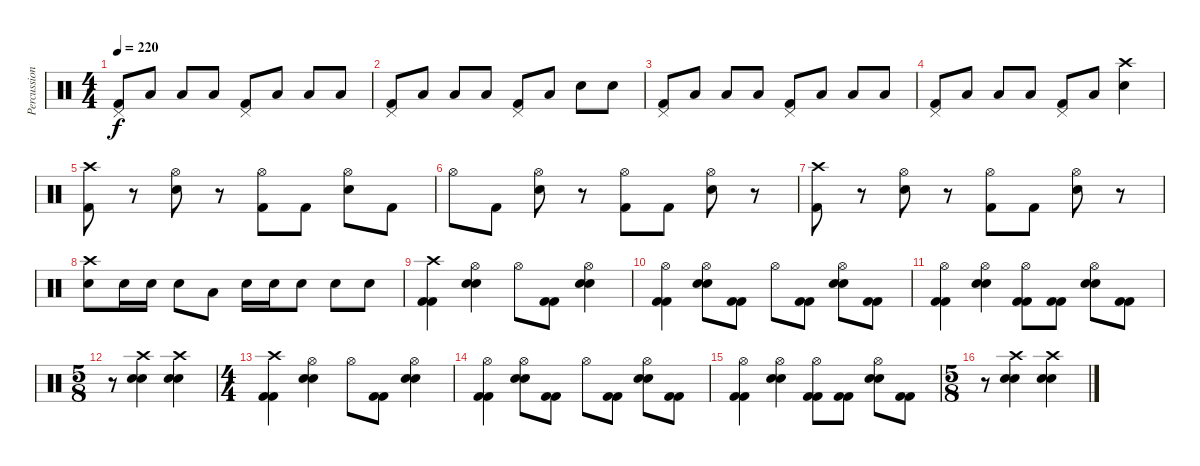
\track ("Percussion" "Percussion") {instrument percussion}
\staff {score}
\articulation defaults
\ts (4 4)
\tempo 220
\clef neutral
\ks c
("Pedal Hi-Hat (hit)" "Kick (hit) 2").8{dy f} "Low Tom (hit)".8 "Low Tom (hit)".8 "Low Tom (hit)".8 ("Pedal Hi-Hat (hit)" "Kick (hit) 2").8 "Low Tom (hit)".8 "Low Tom (hit)".8 "Low Tom (hit)".8 |
("Pedal Hi-Hat (hit)" "Kick (hit) 2").8 "Low Tom (hit)".8 "Low Tom (hit)".8 "Low Tom (hit)".8 ("Pedal Hi-Hat (hit)" "Kick (hit) 2").8 "Low Tom (hit)".8 "Snare (hit) 2".8 "Snare (hit) 2".8 |
("Pedal Hi-Hat (hit)" "Kick (hit) 2").8 "Low Tom (hit)".8 "Low Tom (hit)".8 "Low Tom (hit)".8 ("Pedal Hi-Hat (hit)" "Kick (hit) 2").8 "Low Tom (hit)".8 "Low Tom (hit)".8 "Low Tom (hit)".8 |
("Pedal Hi-Hat (hit)" "Kick (hit) 2").8 "Low Tom (hit)".8 "Low Tom (hit)".8 "Low Tom (hit)".8 ("Pedal Hi-Hat (hit)" "Kick (hit) 2").8 "Low Tom (hit)".8 ("Crash high (hit)" "Snare (hit) 2").4 |
("Crash high (hit)" "Kick (hit) 2").8 r.8 ("Hi-Hat (open)" "Snare (hit) 2").8 r.8 ("Hi-Hat (open)" "Kick (hit) 2").8 "Kick (hit) 2".8 ("Hi-Hat (open)" "Snare (hit) 2").8 "Kick (hit) 2".8 |
"Hi-Hat (open)".8 "Kick (hit) 2".8 ("Hi-Hat (open)" "Snare (hit) 2").8 r.8 ("Hi-Hat (open)" "Kick (hit) 2").8 "Kick (hit) 2".8 ("Hi-Hat (open)" "Snare (hit) 2").8 r.8 |
("Crash high (hit)" "Kick (hit) 2").8 r.8 ("Hi-Hat (open)" "Snare (hit) 2").8 r.8 ("Hi-Hat (open)" "Kick (hit) 2").8 "Kick (hit) 2".8 ("Hi-Hat (open)" "Snare (hit) 2").8 r.8 |
("Crash high (hit)" "Snare (hit) 2").8 "Snare (hit) 2".16 "Snare (hit) 2".16 "Snare (hit) 2".8 "Low Tom (hit)".8 "Snare (hit) 2".16 "Snare (hit) 2".16 "Snare (hit) 2".8 "Snare (hit) 2".8 "Snare (hit) 2".8 |
("Crash high (hit)" "Kick (hit) 2" "Kick (hit) 2").4{volume 10} ("Hi-Hat (open)" "Electric Snare (hit)" "Electric Snare (hit)").4 "Hi-Hat (open)".8 ("Kick (hit) 2" "Kick (hit) 2").8 ("Hi-Hat (open)" "Electric Snare (hit)" "Electric Snare (hit)").4 |
("Hi-Hat (open)" "Kick (hit) 2" "Kick (hit) 2").4 ("Hi-Hat (open)" "Electric Snare (hit)" "Electric Snare (hit)").8 ("Kick (hit) 2" "Kick (hit) 2").8 "Hi-Hat (open)".8 ("Kick (hit) 2" "Kick (hit) 2").8 ("Hi-Hat (open)" "Electric Snare (hit)" "Electric Snare (hit)").8 ("Kick (hit) 2" "Kick (hit) 2").8 |
("Hi-Hat (open)" "Kick (hit) 2" "Kick (hit) 2").4 ("Hi-Hat (open)" "Electric Snare (hit)" "Electric Snare (hit)").4 ("Hi-Hat (open)" "Kick (hit) 2" "Kick (hit) 2").8 ("Kick (hit) 2" "Kick (hit) 2").8 ("Hi-Hat (open)" "Electric Snare (hit)" "Electric Snare (hit)").8 ("Kick (hit) 2" "Kick (hit) 2").8 |
\ts (5 8)
r.8 ("Crash high (hit)" "Electric Snare (hit)" "Electric Snare (hit)").4 ("Crash high (hit)" "Electric Snare (hit)" "Electric Snare (hit)").4 |
\ts (4 4)
("Crash high (hit)" "Kick (hit) 2" "Kick (hit) 2").4 ("Hi-Hat (open)" "Electric Snare (hit)" "Electric Snare (hit)").4 "Hi-Hat (open)".8 ("Kick (hit) 2" "Kick (hit) 2").8 ("Hi-Hat (open)" "Electric Snare (hit)" "Electric Snare (hit)").4 |
("Hi-Hat (open)" "Kick (hit) 2" "Kick (hit) 2").4 ("Hi-Hat (open)" "Electric Snare (hit)" "Electric Snare (hit)").8 ("Kick (hit) 2" "Kick (hit) 2").8 "Hi-Hat (open)".8 ("Kick (hit) 2" "Kick (hit) 2").8 ("Hi-Hat (open)" "Electric Snare (hit)" "Electric Snare (hit)").8 ("Kick (hit) 2" "Kick (hit) 2").8 |
("Hi-Hat (open)" "Kick (hit) 2" "Kick (hit) 2").4 ("Hi-Hat (open)" "Electric Snare (hit)" "Electric Snare (hit)").4 ("Hi-Hat (open)" "Kick (hit) 2" "Kick (hit) 2").8 ("Kick (hit) 2" "Kick (hit) 2").8 ("Hi-Hat (open)" "Electric Snare (hit)" "Electric Snare (hit)").8 ("Kick (hit) 2" "Kick (hit) 2").8 |
\ts (5 8)
r.8 ("Crash high (hit)" "Electric Snare (hit)" "Electric Snare (hit)").4 ("Crash high (hit)" "Electric Snare (hit)" "Electric Snare (hit)").4
